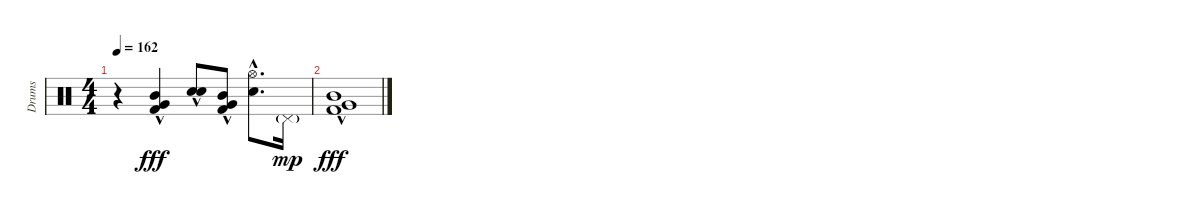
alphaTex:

\track ("Drums" "Drums") {instrument percussion}
\staff {score}
\articulation defaults
\ts (4 4)
\tempo 162
\clef neutral
\ks c
r.4{dy fff} ("Mid Tom (hit)"{hac} "Very Low Tom (hit)"{hac} "Kick (hit) 2"{hac}).4 ("Electric Snare (hit)"{hac} "Electric Snare (hit)"{hac}).8 ("Mid Tom (hit)"{hac} "Very Low Tom (hit)"{hac} "Kick (hit) 2"{hac}).8 ("Hi-Hat (open)"{hac} "Electric Snare (hit)"{hac}).8{d} "Pedal Hi-Hat (hit)"{g}.16{dy mp} |
("Mid Tom (hit)"{hac} "Very Low Tom (hit)"{hac} "Kick (hit) 2"{hac}).1{dy fff}
